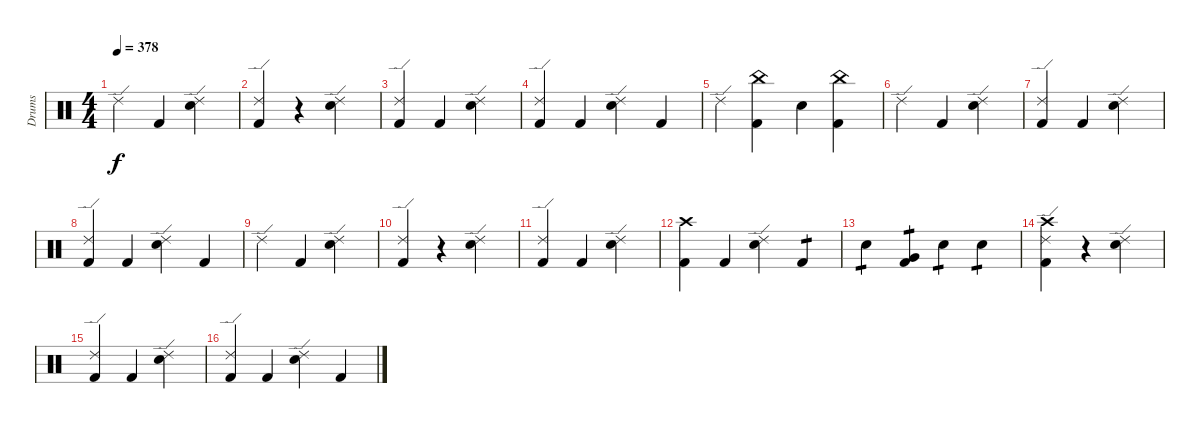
\track ("Drums" "Drums") {instrument percussion}
\staff {score}
\articulation defaults
\ts (4 4)
\tempo 378
\clef neutral
\ks c "Ride (edge) 2".4{dy f} "Kick (hit) 2".4
("Ride (edge) 2" "Electric Snare (hit)").4 |
("Ride (edge) 2" "Kick (hit) 2").4 r.4 ("Ride (edge) 2" "Electric Snare (hit)").4 |
("Ride (edge) 2" "Kick (hit) 2").4 "Kick (hit) 2".4 ("Ride (edge) 2" "Electric Snare (hit)").4 |
("Ride (edge) 2" "Kick (hit) 2").4 "Kick (hit) 2".4 ("Ride (edge) 2" "Electric Snare (hit)").4 "Kick (hit) 2".4 |
"Ride (edge) 2".4 ("China (hit)" "Kick (hit) 2").4 "Electric Snare (hit)".4 ("China (hit)" "Kick (hit) 2").4 |
"Ride (edge) 2".4 "Kick (hit) 2".4 ("Ride (edge) 2" "Electric Snare (hit)").4 |
("Ride (edge) 2" "Kick (hit) 2").4 "Kick (hit) 2".4 ("Ride (edge) 2" "Electric Snare (hit)").4 |
("Ride (edge) 2" "Kick (hit) 2").4 "Kick (hit) 2".4 ("Ride (edge) 2" "Electric Snare (hit)").4 "Kick (hit) 2".4 |
"Ride (edge) 2".4 "Kick (hit) 2".4 ("Ride (edge) 2" "Electric Snare (hit)").4 |
("Ride (edge) 2" "Kick (hit) 2").4 r.4 ("Ride (edge) 2" "Electric Snare (hit)").4 |
("Ride (edge) 2" "Kick (hit) 2").4 "Kick (hit) 2".4 ("Ride (edge) 2" "Electric Snare (hit)").4 |
("Crash high (hit)" "Kick (hit) 2").4 "Kick (hit) 2".4 ("Ride (edge) 2" "Electric Snare (hit)").4 "Kick (hit) 2".4{tp 1} |
"Electric Snare (hit)".4{tp 1} ("Very Low Tom (hit)" "Kick (hit) 2").4{tp 1} "Electric Snare (hit)".4{tp 1} "Electric Snare (hit)".4{tp 1} |
("Crash high (hit)" "Ride (edge) 2" "Kick (hit) 2").4 r.4 ("Ride (edge) 2" "Electric Snare (hit)").4 |
("Ride (edge) 2" "Kick (hit) 2").4 "Kick (hit) 2".4 ("Ride (edge) 2" "Electric Snare (hit)").4 |
("Ride (edge) 2" "Kick (hit) 2").4 "Kick (hit) 2".4 ("Ride (edge) 2" "Electric Snare (hit)").4 "Kick (hit) 2".4
